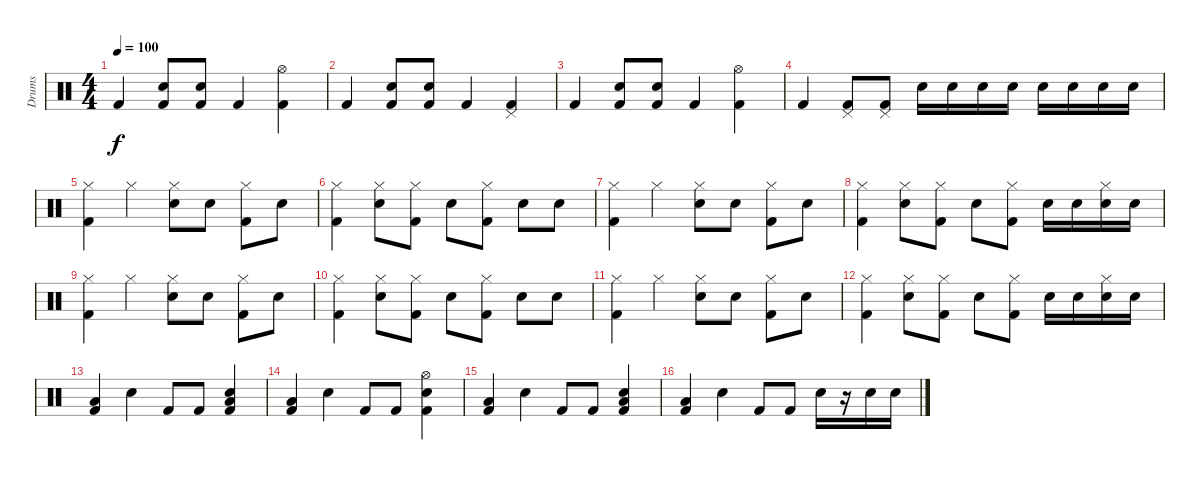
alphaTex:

\track ("Drums" "Drums") {instrument percussion}
\staff {score}
\articulation defaults
\ts (4 4)
\tempo 100
\clef neutral
\ks c "Kick (hit) 2".4{dy f}
("Kick (hit) 2" "Snare (hit) 2").8 ("Kick (hit) 2" "Snare (hit) 2").8 "Kick (hit) 2".4 ("Kick (hit) 2" "Hi-Hat (open)").4 |
"Kick (hit) 2".4 ("Kick (hit) 2" "Snare (hit) 2").8 ("Kick (hit) 2" "Snare (hit) 2").8 "Kick (hit) 2".4 ("Kick (hit) 2" "Pedal Hi-Hat (hit)").4 |
"Kick (hit) 2".4 ("Kick (hit) 2" "Snare (hit) 2").8 ("Kick (hit) 2" "Snare (hit) 2").8 "Kick (hit) 2".4 ("Kick (hit) 2" "Hi-Hat (open)").4 |
"Kick (hit) 2".4 ("Kick (hit) 2" "Pedal Hi-Hat (hit)").8 ("Kick (hit) 2" "Pedal Hi-Hat (hit)").8 "Snare (hit) 2".16 "Snare (hit) 2".16 "Snare (hit) 2".16 "Snare (hit) 2".16 "Snare (hit) 2".16 "Snare (hit) 2".16 "Snare (hit) 2".16 "Snare (hit) 2".16 |
("Kick (hit) 2" "Hi-Hat (closed)").4 "Hi-Hat (closed)".4 ("Snare (hit) 2" "Hi-Hat (closed)").8 "Snare (hit) 2".8 ("Kick (hit) 2" "Hi-Hat (closed)").8 "Snare (hit) 2".8 |
("Kick (hit) 2" "Hi-Hat (closed)").4 ("Snare (hit) 2" "Hi-Hat (closed)").8 ("Kick (hit) 2" "Hi-Hat (closed)").8 "Snare (hit) 2".8 ("Kick (hit) 2" "Hi-Hat (closed)").8 "Snare (hit) 2".8 "Snare (hit) 2".8 |
("Kick (hit) 2" "Hi-Hat (closed)").4 "Hi-Hat (closed)".4 ("Snare (hit) 2" "Hi-Hat (closed)").8 "Snare (hit) 2".8 ("Kick (hit) 2" "Hi-Hat (closed)").8 "Snare (hit) 2".8 |
("Kick (hit) 2" "Hi-Hat (closed)").4 ("Snare (hit) 2" "Hi-Hat (closed)").8 ("Kick (hit) 2" "Hi-Hat (closed)").8 "Snare (hit) 2".8 ("Kick (hit) 2" "Hi-Hat (closed)").8 "Snare (hit) 2".16 "Snare (hit) 2".16 ("Snare (hit) 2" "Hi-Hat (closed)").16 "Snare (hit) 2".16 |
("Kick (hit) 2" "Hi-Hat (closed)").4 "Hi-Hat (closed)".4 ("Snare (hit) 2" "Hi-Hat (closed)").8 "Snare (hit) 2".8 ("Kick (hit) 2" "Hi-Hat (closed)").8 "Snare (hit) 2".8 |
("Kick (hit) 2" "Hi-Hat (closed)").4 ("Snare (hit) 2" "Hi-Hat (closed)").8 ("Kick (hit) 2" "Hi-Hat (closed)").8 "Snare (hit) 2".8 ("Kick (hit) 2" "Hi-Hat (closed)").8 "Snare (hit) 2".8 "Snare (hit) 2".8 |
("Kick (hit) 2" "Hi-Hat (closed)").4 "Hi-Hat (closed)".4 ("Snare (hit) 2" "Hi-Hat (closed)").8 "Snare (hit) 2".8 ("Kick (hit) 2" "Hi-Hat (closed)").8 "Snare (hit) 2".8 |
("Kick (hit) 2" "Hi-Hat (closed)").4 ("Snare (hit) 2" "Hi-Hat (closed)").8 ("Kick (hit) 2" "Hi-Hat (closed)").8 "Snare (hit) 2".8 ("Kick (hit) 2" "Hi-Hat (closed)").8 "Snare (hit) 2".16 "Snare (hit) 2".16 ("Snare (hit) 2" "Hi-Hat (closed)").16 "Snare (hit) 2".16 |
("Kick (hit) 2" "Low Tom (hit)").4 "Snare (hit) 2".4 "Kick (hit) 2".8 "Kick (hit) 2".8 ("Kick (hit) 2" "Snare (hit) 2" "Low Tom (hit)").4 |
("Kick (hit) 2" "Low Tom (hit)").4 "Snare (hit) 2".4 "Kick (hit) 2".8 "Kick (hit) 2".8 ("Kick (hit) 2" "Snare (hit) 2" "Hi-Hat (open)").4 |
("Kick (hit) 2" "Low Tom (hit)").4 "Snare (hit) 2".4 "Kick (hit) 2".8 "Kick (hit) 2".8 ("Kick (hit) 2" "Snare (hit) 2" "Low Tom (hit)").4 |
("Kick (hit) 2" "Low Tom (hit)").4 "Snare (hit) 2".4 "Kick (hit) 2".8 "Kick (hit) 2".8 "Snare (hit) 2".16 r.16 "Snare (hit) 2".16 "Snare (hit) 2".16
